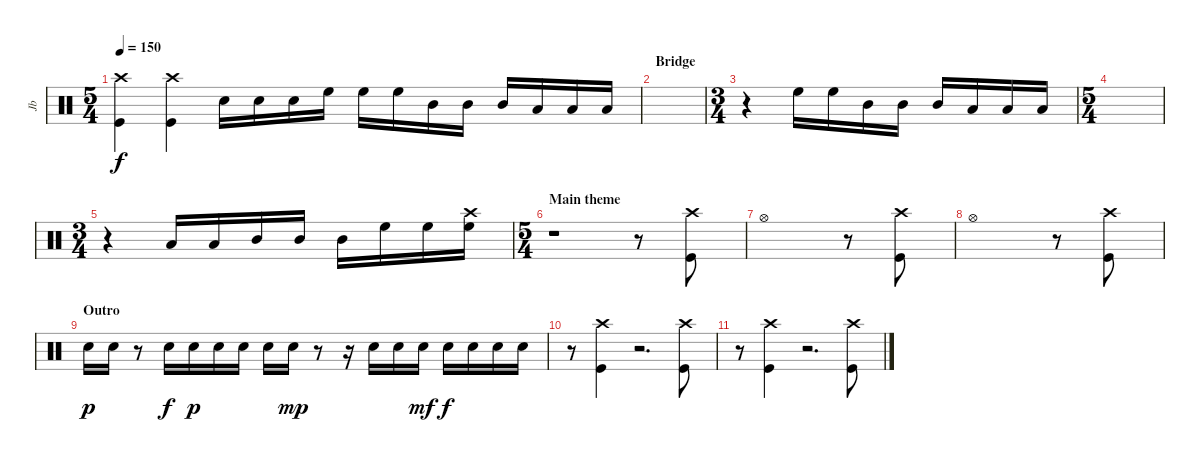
\track ("Jb" "Jb") {instrument percussion}
\staff {score}
\articulation defaults
\ts (5 4)
\tempo 150
\clef neutral
\ks c
("Crash high (hit)" "Kick (hit)").4{dy f} ("Crash high (hit)" "Kick (hit)").4 "Electric Snare (hit)".16 "Electric Snare (hit)".16 "Electric Snare (hit)".16 "High Floor Tom (hit)".16 "High Floor Tom (hit)".16 "High Floor Tom (hit)".16 "Mid Tom (hit)".16 "Mid Tom (hit)".16 "Mid Tom (hit)".16 "Low Floor Tom (hit)".16 "Low Floor Tom (hit)".16 "Low Floor Tom (hit)".16 |
\section ("" "Bridge")
|
\ts (3 4)
r.4 "High Floor Tom (hit)".16 "High Floor Tom (hit)".16 "Mid Tom (hit)".16 "Mid Tom (hit)".16 "Mid Tom (hit)".16 "Low Floor Tom (hit)".16 "Low Floor Tom (hit)".16 "Low Floor Tom (hit)".16 |
\ts (5 4)
|
\ts (3 4)
r.4 "Low Floor Tom (hit)".16 "Low Floor Tom (hit)".16 "Mid Tom (hit)".16 "Mid Tom (hit)".16 "Mid Tom (hit)".16 "High Floor Tom (hit)".16 "High Floor Tom (hit)".16 ("Crash high (hit)" "High Floor Tom (hit)").16 |
\ts (5 4)
\section ("" "Main theme")
r.1 r.8 ("Crash high (hit)" "Kick (hit)").8 |
"Hi-Hat (open)".1 r.8 ("Crash high (hit)" "Kick (hit)").8 |
"Hi-Hat (open)".1 r.8 ("Crash high (hit)" "Kick (hit)").8 |
\section ("" "Outro")
"Electric Snare (hit)".16{dy p} "Electric Snare (hit)".16 r.8 "Electric Snare (hit)".16{dy f} "Electric Snare (hit)".16{dy p} "Electric Snare (hit)".16 "Electric Snare (hit)".16 "Electric Snare (hit)".16 "Electric Snare (hit)".16{dy mp} r.8 r.16 "Electric Snare (hit)".16 "Electric Snare (hit)".16 "Electric Snare (hit)".16{dy mf} "Electric Snare (hit)".16{dy f} "Electric Snare (hit)".16 "Electric Snare (hit)".16 "Electric Snare (hit)".16 |
r.8 ("Crash high (hit)" "Kick (hit)").4 r.2{d} ("Crash high (hit)" "Kick (hit)").8 |
r.8 ("Crash high (hit)" "Kick (hit)").4 r.2{d} ("Crash high (hit)" "Kick (hit)").8
